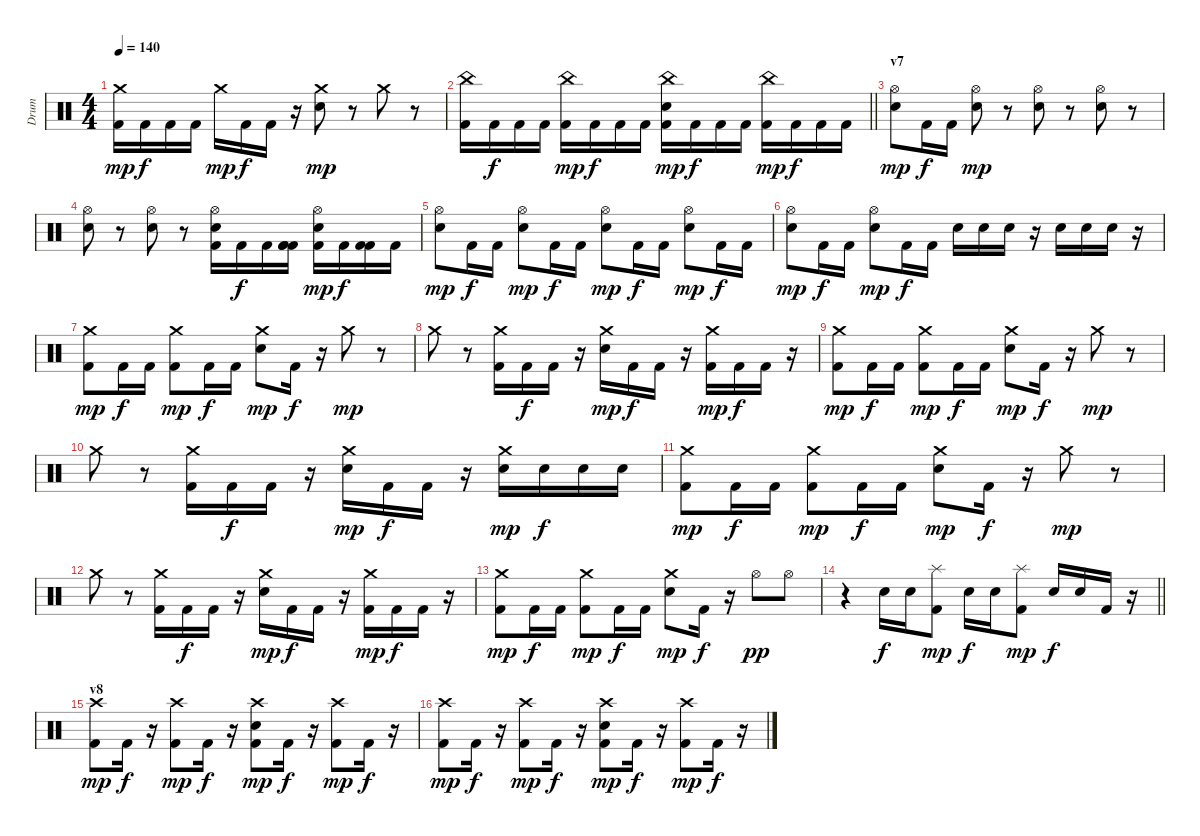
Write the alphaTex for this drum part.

\track ("Drum" "Drum") {instrument percussion}
\staff {score}
\articulation defaults
\ts (4 4)
\tempo 140
\clef neutral
\ks c
("Crash medium (hit)" "Kick (hit) 2").16{dy mp} "Kick (hit) 2".16{dy f} "Kick (hit) 2".16 "Kick (hit) 2".16 "Crash medium (hit)".16{dy mp} "Kick (hit) 2".16{dy f} "Kick (hit) 2".16 r.16 ("Crash medium (hit)" "Electric Snare (hit)").8{dy mp} r.8 "Crash medium (hit)".8 r.8 |
\barLineRight lightlight
("China (hit)" "Kick (hit) 2").16 "Kick (hit) 2".16{dy f} "Kick (hit) 2".16 "Kick (hit) 2".16 ("Kick (hit) 2" "China (hit)").16{dy mp} "Kick (hit) 2".16{dy f} "Kick (hit) 2".16 "Kick (hit) 2".16 ("China (hit)" "Electric Snare (hit)" "Kick (hit) 2").16{dy mp} "Kick (hit) 2".16{dy f} "Kick (hit) 2".16 "Kick (hit) 2".16 ("Kick (hit) 2" "China (hit)").16{dy mp} "Kick (hit) 2".16{dy f} "Kick (hit) 2".16 "Kick (hit) 2".16 |
\section ("" "v7")
("Snare (hit) 2" "Hi-Hat (open)").8{dy mp} "Kick (hit) 2".16{dy f} "Kick (hit) 2".16 ("Hi-Hat (open)" "Snare (hit) 2").8{dy mp} r.8 ("Hi-Hat (open)" "Snare (hit) 2").8 r.8 ("Hi-Hat (open)" "Snare (hit) 2").8 r.8 |
("Hi-Hat (open)" "Snare (hit) 2").8 r.8 ("Hi-Hat (open)" "Snare (hit) 2").8 r.8 ("Hi-Hat (open)" "Kick (hit) 2" "Snare (hit) 2").16 "Kick (hit) 2".16{dy f} "Kick (hit) 2".16 ("Kick (hit) 2" "Kick (hit) 2" "Kick (hit) 2").16 ("Hi-Hat (open)" "Snare (hit) 2" "Kick (hit) 2").16{dy mp} "Kick (hit) 2".16{dy f} ("Kick (hit) 2" "Kick (hit) 2").16 "Kick (hit) 2".16 |
("Hi-Hat (open)" "Snare (hit) 2").8{dy mp} "Kick (hit) 2".16{dy f} "Kick (hit) 2".16 ("Snare (hit) 2" "Hi-Hat (open)").8{dy mp} "Kick (hit) 2".16{dy f} "Kick (hit) 2".16 ("Hi-Hat (open)" "Snare (hit) 2").8{dy mp} "Kick (hit) 2".16{dy f} "Kick (hit) 2".16 ("Snare (hit) 2" "Hi-Hat (open)").8{dy mp} "Kick (hit) 2".16{dy f} "Kick (hit) 2".16 |
("Hi-Hat (open)" "Snare (hit) 2").8{dy mp} "Kick (hit) 2".16{dy f} "Kick (hit) 2".16 ("Snare (hit) 2" "Hi-Hat (open)").8{dy mp} "Kick (hit) 2".16{dy f} "Kick (hit) 2".16 "Snare (hit) 2".16 "Snare (hit) 2".16 "Snare (hit) 2".16 r.16 "Snare (hit) 2".16 "Snare (hit) 2".16 "Snare (hit) 2".16 r.16 |
("Kick (hit) 2" "Crash medium (hit)").8{dy mp} "Kick (hit) 2".16{dy f} "Kick (hit) 2".16 ("Kick (hit) 2" "Crash medium (hit)").8{dy mp} "Kick (hit) 2".16{dy f} "Kick (hit) 2".16 ("Snare (hit) 2" "Crash medium (hit)").8{dy mp} "Kick (hit) 2".16{dy f} r.16 "Crash medium (hit)".8{dy mp} r.8 |
"Crash medium (hit)".8 r.8 ("Kick (hit) 2" "Crash medium (hit)").16 "Kick (hit) 2".16{dy f} "Kick (hit) 2".16 r.16 ("Snare (hit) 2" "Crash medium (hit)").16{dy mp} "Kick (hit) 2".16{dy f} "Kick (hit) 2".16 r.16 ("Kick (hit) 2" "Crash medium (hit)").16{dy mp} "Kick (hit) 2".16{dy f} "Kick (hit) 2".16 r.16 |
("Kick (hit) 2" "Crash medium (hit)").8{dy mp} "Kick (hit) 2".16{dy f} "Kick (hit) 2".16 ("Kick (hit) 2" "Crash medium (hit)").8{dy mp} "Kick (hit) 2".16{dy f} "Kick (hit) 2".16 ("Snare (hit) 2" "Crash medium (hit)").8{dy mp} "Kick (hit) 2".16{dy f} r.16 "Crash medium (hit)".8{dy mp} r.8 |
"Crash medium (hit)".8 r.8 ("Kick (hit) 2" "Crash medium (hit)").16 "Kick (hit) 2".16{dy f} "Kick (hit) 2".16 r.16 ("Snare (hit) 2" "Crash medium (hit)").16{dy mp} "Kick (hit) 2".16{dy f} "Kick (hit) 2".16 r.16 ("Snare (hit) 2" "Crash medium (hit)").16{dy mp} "Snare (hit) 2".16{dy f} "Snare (hit) 2".16 "Snare (hit) 2".16 |
("Kick (hit) 2" "Crash medium (hit)").8{dy mp} "Kick (hit) 2".16{dy f} "Kick (hit) 2".16 ("Kick (hit) 2" "Crash medium (hit)").8{dy mp} "Kick (hit) 2".16{dy f} "Kick (hit) 2".16 ("Snare (hit) 2" "Crash medium (hit)").8{dy mp} "Kick (hit) 2".16{dy f} r.16 "Crash medium (hit)".8{dy mp} r.8 |
"Crash medium (hit)".8 r.8 ("Kick (hit) 2" "Crash medium (hit)").16 "Kick (hit) 2".16{dy f} "Kick (hit) 2".16 r.16 ("Crash medium (hit)" "Snare (hit) 2").16{dy mp} "Kick (hit) 2".16{dy f} "Kick (hit) 2".16 r.16 ("Kick (hit) 2" "Crash medium (hit)").16{dy mp} "Kick (hit) 2".16{dy f} "Kick (hit) 2".16 r.16 |
("Kick (hit) 2" "Crash medium (hit)").8{dy mp} "Kick (hit) 2".16{dy f} "Kick (hit) 2".16 ("Crash medium (hit)" "Kick (hit) 2").8{dy mp} "Kick (hit) 2".16{dy f} "Kick (hit) 2".16 ("Crash medium (hit)" "Snare (hit) 2").8{dy mp} "Kick (hit) 2".16{dy f} r.16 "Hi-Hat (open)".8{dy pp} "Hi-Hat (open)".8 |
\barLineRight lightlight
r.4 "Snare (hit) 2".16{dy f} "Snare (hit) 2".16 ("Kick (hit) 2" "Splash (hit)").8{dy mp} "Snare (hit) 2".16{dy f} "Snare (hit) 2".16 ("Kick (hit) 2" "Splash (hit)").8{dy mp} "Snare (hit) 2".16{dy f} "Snare (hit) 2".16 "Kick (hit) 2".16 r.16 |
\section ("" "v8")
("Kick (hit) 2" "Crash high (hit)").8{dy mp} "Kick (hit) 2".16{dy f} r.16 ("Crash high (hit)" "Kick (hit) 2").8{dy mp} "Kick (hit) 2".16{dy f} r.16 ("Electric Snare (hit)" "Kick (hit) 2" "Crash high (hit)").8{dy mp} "Kick (hit) 2".16{dy f} r.16 ("Crash high (hit)" "Kick (hit) 2").8{dy mp} "Kick (hit) 2".16{dy f} r.16 |
("Kick (hit) 2" "Crash high (hit)").8{dy mp} "Kick (hit) 2".16{dy f} r.16 ("Crash high (hit)" "Kick (hit) 2").8{dy mp} "Kick (hit) 2".16{dy f} r.16 ("Electric Snare (hit)" "Kick (hit) 2" "Crash high (hit)").8{dy mp} "Kick (hit) 2".16{dy f} r.16 ("Crash high (hit)" "Kick (hit) 2").8{dy mp} "Kick (hit) 2".16{dy f} r.16
